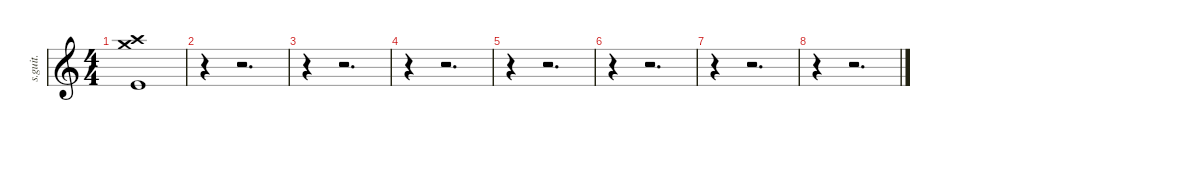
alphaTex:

\defaultSystemsLayout 4
\hideDynamics
\bracketExtendMode nobrackets
\track ("Matt Halpern" "s.guit.") {instrument percussion}
\staff {score}
\articulation defaults
\ts (4 4)
\tempo (213 hide)
\clef g2
\ks c
("Kick (hit)" "Crash high (hit)" "Crash medium (hit)").1{lyrics (0 "") lyrics (1 "") lyrics (2 "") lyrics (3 "") lyrics (4 "") dy mf} |
r.4 r.2{d} |
r.4 r.2{d} |
r.4 r.2{d} |
r.4 r.2{d} |
r.4 r.2{d} |
r.4 r.2{d} |
r.4 r.2{d}
